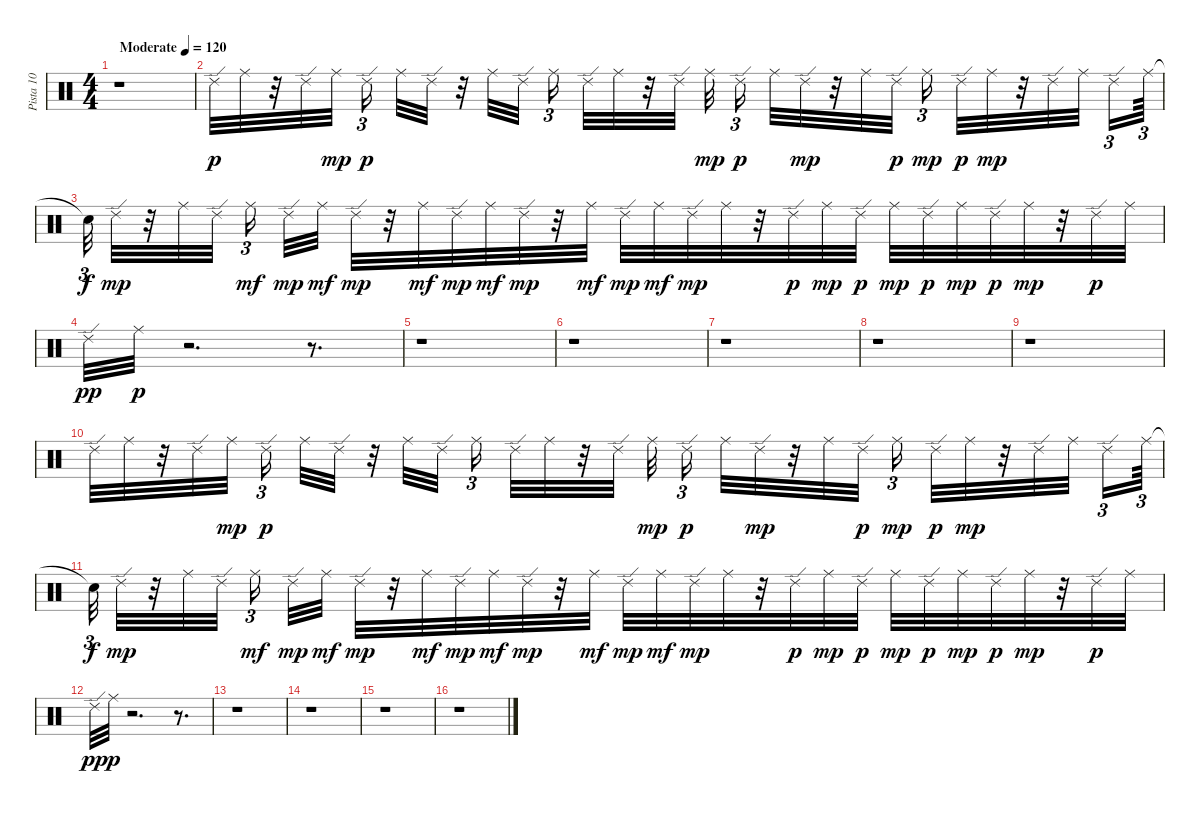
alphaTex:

\track ("Pista 10" "Pista 10") {instrument percussion}
\staff {score}
\articulation defaults
\ts (4 4)
\tempo (120 "Moderate")
\clef neutral
\ks c
r.1{dy p} |
"Ride (edge) 2".32 "Ride (middle)".32 r.32 "Ride (edge) 2".32 "Ride (middle)".32{dy mp beam splitsecondary} "Ride (edge) 2".16{tu (3 2) dy p beam splitsecondary} "Ride (middle)".32 "Ride (edge) 2".32 r.32 "Ride (middle)".32 "Ride (edge) 2".32{beam splitsecondary} "Ride (middle)".16{tu (3 2) beam splitsecondary} "Ride (edge) 2".32 "Ride (middle)".32 r.32 "Ride (edge) 2".32 "Ride (middle)".32{dy mp beam splitsecondary} "Ride (edge) 2".16{tu (3 2) dy p beam splitsecondary} "Ride (middle)".32 "Ride (edge) 2".32{dy mp} r.32 "Ride (middle)".32 "Ride (edge) 2".32{dy p} "Ride (middle)".16{tu (3 2) dy mp beam splitsecondary} "Ride (edge) 2".32{dy p} "Ride (middle)".32{dy mp} r.32 "Ride (edge) 2".32 "Ride (middle)".32{beam splitsecondary} "Ride (edge) 2".16{tu (3 2)} "Ride (middle)".64{tu (3 2)} |
"Snare (hit)"{t}.32{tu (3 2) dy f} "Ride (edge) 2".32{dy mp} r.32 "Ride (middle)".32 "Ride (edge) 2".32{beam splitsecondary} "Ride (middle)".16{tu (3 2) dy mf beam splitsecondary} "Ride (edge) 2".32{dy mp} "Ride (middle)".32{dy mf} "Ride (edge) 2".32{dy mp} r.32 "Ride (middle)".32{dy mf} "Ride (edge) 2".32{dy mp} "Ride (middle)".32{dy mf} "Ride (edge) 2".32{dy mp} r.32 "Ride (middle)".32{dy mf} "Ride (edge) 2".32{dy mp} "Ride (middle)".32{dy mf} "Ride (edge) 2".32{dy mp} "Ride (middle)".32 r.32 "Ride (edge) 2".32{dy p} "Ride (middle)".32{dy mp} "Ride (edge) 2".32{dy p} "Ride (middle)".32{dy mp} "Ride (edge) 2".32{dy p} "Ride (middle)".32{dy mp} "Ride (edge) 2".32{dy p} "Ride (middle)".32{dy mp} r.32 "Ride (edge) 2".32{dy p} "Ride (middle)".32 |
"Ride (edge) 2".32{dy pp} "Ride (middle)".32{dy p} r.2{d} r.8{d} |
r.1 |
r.1 |
r.1 |
r.1 |
r.1 |
"Ride (edge) 2".32 "Ride (middle)".32 r.32 "Ride (edge) 2".32 "Ride (middle)".32{dy mp beam splitsecondary} "Ride (edge) 2".16{tu (3 2) dy p beam splitsecondary} "Ride (middle)".32 "Ride (edge) 2".32 r.32 "Ride (middle)".32 "Ride (edge) 2".32{beam splitsecondary} "Ride (middle)".16{tu (3 2) beam splitsecondary} "Ride (edge) 2".32 "Ride (middle)".32 r.32 "Ride (edge) 2".32 "Ride (middle)".32{dy mp beam splitsecondary} "Ride (edge) 2".16{tu (3 2) dy p beam splitsecondary} "Ride (middle)".32 "Ride (edge) 2".32{dy mp} r.32 "Ride (middle)".32 "Ride (edge) 2".32{dy p} "Ride (middle)".16{tu (3 2) dy mp beam splitsecondary} "Ride (edge) 2".32{dy p} "Ride (middle)".32{dy mp} r.32 "Ride (edge) 2".32 "Ride (middle)".32{beam splitsecondary} "Ride (edge) 2".16{tu (3 2)} "Ride (middle)".64{tu (3 2)} |
"Snare (hit)"{t}.32{tu (3 2) dy f} "Ride (edge) 2".32{dy mp} r.32 "Ride (middle)".32 "Ride (edge) 2".32{beam splitsecondary} "Ride (middle)".16{tu (3 2) dy mf beam splitsecondary} "Ride (edge) 2".32{dy mp} "Ride (middle)".32{dy mf} "Ride (edge) 2".32{dy mp} r.32 "Ride (middle)".32{dy mf} "Ride (edge) 2".32{dy mp} "Ride (middle)".32{dy mf} "Ride (edge) 2".32{dy mp} r.32 "Ride (middle)".32{dy mf} "Ride (edge) 2".32{dy mp} "Ride (middle)".32{dy mf} "Ride (edge) 2".32{dy mp} "Ride (middle)".32 r.32 "Ride (edge) 2".32{dy p} "Ride (middle)".32{dy mp} "Ride (edge) 2".32{dy p} "Ride (middle)".32{dy mp} "Ride (edge) 2".32{dy p} "Ride (middle)".32{dy mp} "Ride (edge) 2".32{dy p} "Ride (middle)".32{dy mp} r.32 "Ride (edge) 2".32{dy p} "Ride (middle)".32 |
"Ride (edge) 2".32{dy pp} "Ride (middle)".32{dy p} r.2{d} r.8{d} |
r.1 |
r.1 |
r.1 |
r.1
